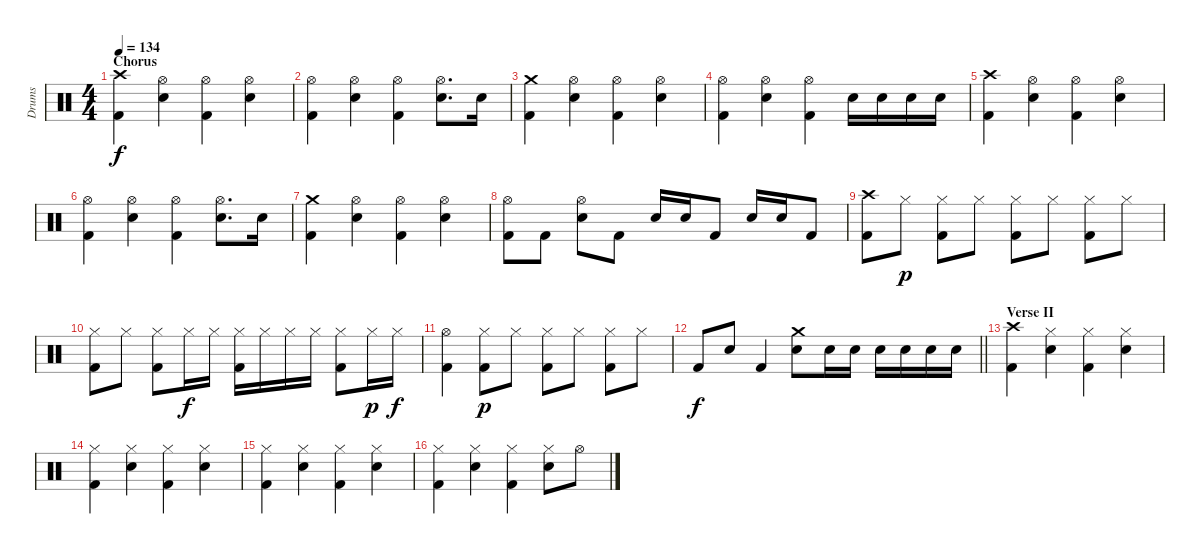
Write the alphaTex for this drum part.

\track ("Drums" "Drums") {instrument percussion}
\staff {score}
\articulation defaults
\ts (4 4)
\section ("" "Chorus")
\tempo 134
\clef neutral
\ks c
("Crash high (hit)" "Kick (hit) 2").4{dy f} ("Hi-Hat (open)" "Snare (hit) 2").4 ("Hi-Hat (open)" "Kick (hit) 2").4 ("Hi-Hat (open)" "Snare (hit) 2").4 |
("Hi-Hat (open)" "Kick (hit) 2").4 ("Hi-Hat (open)" "Snare (hit) 2").4 ("Hi-Hat (open)" "Kick (hit) 2").4 ("Hi-Hat (open)" "Snare (hit) 2").8{d} "Snare (hit) 2".16 |
("Crash medium (hit)" "Kick (hit) 2").4 ("Hi-Hat (open)" "Snare (hit) 2").4 ("Hi-Hat (open)" "Kick (hit) 2").4 ("Hi-Hat (open)" "Snare (hit) 2").4 |
("Hi-Hat (open)" "Kick (hit) 2").4 ("Hi-Hat (open)" "Snare (hit) 2").4 ("Hi-Hat (open)" "Kick (hit) 2").4 "Snare (hit) 2".16 "Snare (hit) 2".16 "Snare (hit) 2".16 "Snare (hit) 2".16 |
("Crash high (hit)" "Kick (hit) 2").4 ("Hi-Hat (open)" "Snare (hit) 2").4 ("Hi-Hat (open)" "Kick (hit) 2").4 ("Hi-Hat (open)" "Snare (hit) 2").4 |
("Hi-Hat (open)" "Kick (hit) 2").4 ("Hi-Hat (open)" "Snare (hit) 2").4 ("Hi-Hat (open)" "Kick (hit) 2").4 ("Hi-Hat (open)" "Snare (hit) 2").8{d} "Snare (hit) 2".16 |
("Crash medium (hit)" "Kick (hit) 2").4 ("Hi-Hat (open)" "Snare (hit) 2").4 ("Hi-Hat (open)" "Kick (hit) 2").4 ("Hi-Hat (open)" "Snare (hit) 2").4 |
("Hi-Hat (open)" "Kick (hit) 2").8 "Kick (hit) 2".8 ("Hi-Hat (open)" "Snare (hit) 2").8 "Kick (hit) 2".8 "Snare (hit) 2".16 "Snare (hit) 2".16 "Kick (hit) 2".8 "Snare (hit) 2".16 "Snare (hit) 2".16 "Kick (hit) 2".8 |
("Crash high (hit)" "Kick (hit) 2").8 "Hi-Hat (closed)".8{dy p} ("Hi-Hat (closed)" "Kick (hit) 2").8 "Hi-Hat (closed)".8 ("Hi-Hat (closed)" "Kick (hit) 2").8 "Hi-Hat (closed)".8 ("Hi-Hat (closed)" "Kick (hit) 2").8 "Hi-Hat (closed)".8 |
("Hi-Hat (closed)" "Kick (hit) 2").8 "Hi-Hat (closed)".8 ("Hi-Hat (closed)" "Kick (hit) 2").8 "Hi-Hat (closed)".16{dy f} "Hi-Hat (closed)".16 ("Hi-Hat (closed)" "Kick (hit) 2").16 "Hi-Hat (closed)".16 "Hi-Hat (closed)".16 "Hi-Hat (closed)".16 ("Hi-Hat (closed)" "Kick (hit) 2").8 "Hi-Hat (closed)".16{dy p} "Hi-Hat (closed)".16{dy f} |
("Hi-Hat (open)" "Kick (hit) 2").4 ("Hi-Hat (closed)" "Kick (hit) 2").8{dy p} "Hi-Hat (closed)".8 ("Hi-Hat (closed)" "Kick (hit) 2").8 "Hi-Hat (closed)".8 ("Hi-Hat (closed)" "Kick (hit) 2").8 "Hi-Hat (closed)".8 |
\barLineRight lightlight "Kick (hit) 2".8{dy f} "Snare (hit) 2".8 "Kick (hit) 2".4
("Crash medium (hit)" "Snare (hit) 2").8 "Snare (hit) 2".16 "Snare (hit) 2".16 "Snare (hit) 2".16 "Snare (hit) 2".16 "Snare (hit) 2".16 "Snare (hit) 2".16 |
\section ("" "Verse II")
("Crash high (hit)" "Kick (hit) 2").4 ("Hi-Hat (closed)" "Snare (hit) 2").4 ("Hi-Hat (closed)" "Kick (hit) 2").4 ("Hi-Hat (closed)" "Snare (hit) 2").4 |
("Hi-Hat (closed)" "Kick (hit) 2").4 ("Hi-Hat (closed)" "Snare (hit) 2").4 ("Hi-Hat (closed)" "Kick (hit) 2").4 ("Hi-Hat (closed)" "Snare (hit) 2").4 |
("Hi-Hat (closed)" "Kick (hit) 2").4 ("Hi-Hat (closed)" "Snare (hit) 2").4 ("Hi-Hat (closed)" "Kick (hit) 2").4 ("Hi-Hat (closed)" "Snare (hit) 2").4 |
("Hi-Hat (closed)" "Kick (hit) 2").4 ("Hi-Hat (closed)" "Snare (hit) 2").4 ("Hi-Hat (closed)" "Kick (hit) 2").4 ("Hi-Hat (closed)" "Snare (hit) 2").8 "Hi-Hat (open)".8
